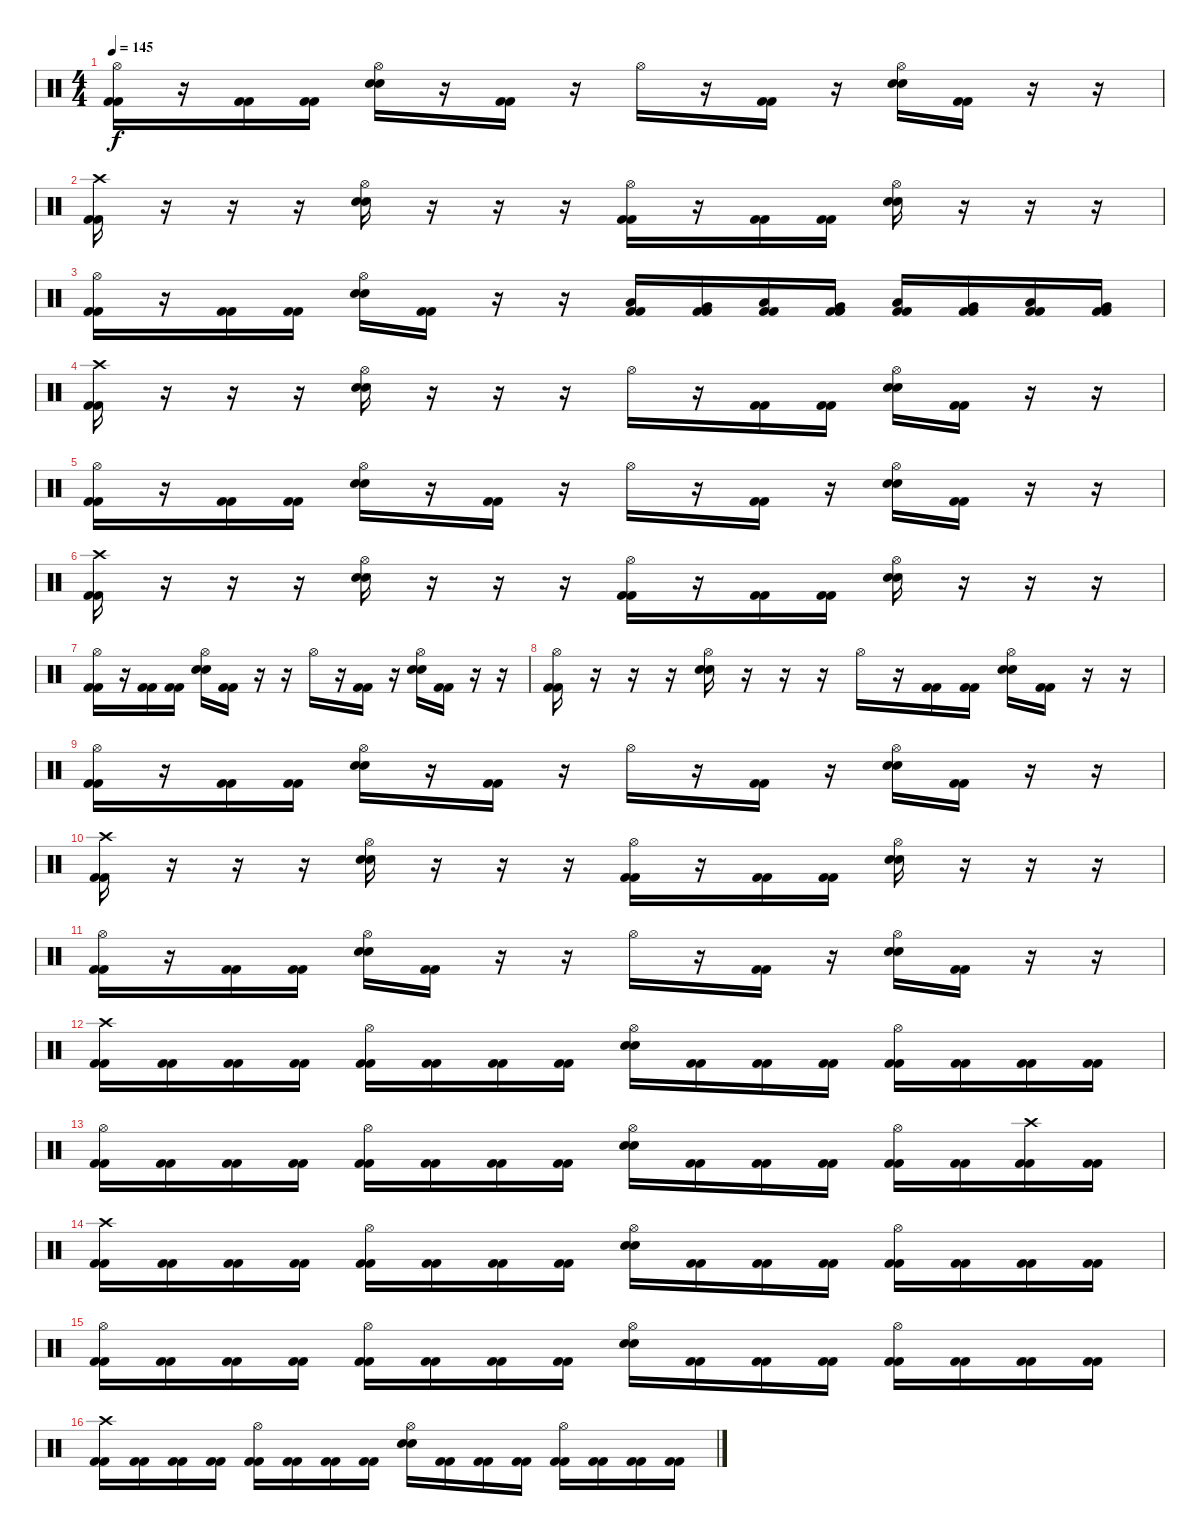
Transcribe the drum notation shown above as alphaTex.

\track "" {instrument percussion}
\staff {score}
\articulation defaults
\ts (4 4)
\tempo 145
\clef neutral
\ks c
("Hi-Hat (open)" "Kick (hit) 2" "Kick (hit) 2").16{dy f} r.16 ("Kick (hit) 2" "Kick (hit) 2").16 ("Kick (hit) 2" "Kick (hit) 2").16 ("Hi-Hat (open)" "Snare (hit) 2" "Snare (hit) 2").16 r.16 ("Kick (hit) 2" "Kick (hit) 2").16 r.16 "Hi-Hat (open)".16 r.16 ("Kick (hit) 2" "Kick (hit) 2").16 r.16 ("Hi-Hat (open)" "Snare (hit) 2" "Snare (hit) 2").16 ("Kick (hit) 2" "Kick (hit) 2").16 r.16 r.16 |
("Crash high (hit)" "Kick (hit) 2" "Kick (hit) 2").16 r.16 r.16 r.16 ("Hi-Hat (open)" "Snare (hit) 2" "Snare (hit) 2").16 r.16 r.16 r.16 ("Hi-Hat (open)" "Kick (hit) 2" "Kick (hit) 2").16 r.16 ("Kick (hit) 2" "Kick (hit) 2").16 ("Kick (hit) 2" "Kick (hit) 2").16 ("Hi-Hat (open)" "Snare (hit) 2" "Snare (hit) 2").16 r.16 r.16 r.16 |
("Hi-Hat (open)" "Kick (hit) 2" "Kick (hit) 2").16 r.16 ("Kick (hit) 2" "Kick (hit) 2").16 ("Kick (hit) 2" "Kick (hit) 2").16 ("Hi-Hat (open)" "Snare (hit) 2" "Snare (hit) 2").16 ("Kick (hit) 2" "Kick (hit) 2").16 r.16 r.16 ("Low Tom (hit)" "Kick (hit) 2" "Kick (hit) 2").16 ("Very Low Tom (hit)" "Kick (hit) 2" "Kick (hit) 2").16 ("Low Tom (hit)" "Kick (hit) 2" "Kick (hit) 2").16 ("Very Low Tom (hit)" "Kick (hit) 2" "Kick (hit) 2").16 ("Low Tom (hit)" "Kick (hit) 2" "Kick (hit) 2").16 ("Very Low Tom (hit)" "Kick (hit) 2" "Kick (hit) 2").16 ("Low Tom (hit)" "Kick (hit) 2" "Kick (hit) 2").16 ("Very Low Tom (hit)" "Kick (hit) 2" "Kick (hit) 2").16 |
("Crash high (hit)" "Kick (hit) 2" "Kick (hit) 2").16 r.16 r.16 r.16 ("Hi-Hat (open)" "Snare (hit) 2" "Snare (hit) 2").16 r.16 r.16 r.16 "Hi-Hat (open)".16 r.16 ("Kick (hit) 2" "Kick (hit) 2").16 ("Kick (hit) 2" "Kick (hit) 2").16 ("Hi-Hat (open)" "Snare (hit) 2" "Snare (hit) 2").16 ("Kick (hit) 2" "Kick (hit) 2").16 r.16 r.16 |
("Hi-Hat (open)" "Kick (hit) 2" "Kick (hit) 2").16 r.16 ("Kick (hit) 2" "Kick (hit) 2").16 ("Kick (hit) 2" "Kick (hit) 2").16 ("Hi-Hat (open)" "Snare (hit) 2" "Snare (hit) 2").16 r.16 ("Kick (hit) 2" "Kick (hit) 2").16 r.16 "Hi-Hat (open)".16 r.16 ("Kick (hit) 2" "Kick (hit) 2").16 r.16 ("Hi-Hat (open)" "Snare (hit) 2" "Snare (hit) 2").16 ("Kick (hit) 2" "Kick (hit) 2").16 r.16 r.16 |
("Crash high (hit)" "Kick (hit) 2" "Kick (hit) 2").16 r.16 r.16 r.16 ("Hi-Hat (open)" "Snare (hit) 2" "Snare (hit) 2").16 r.16 r.16 r.16 ("Hi-Hat (open)" "Kick (hit) 2" "Kick (hit) 2").16 r.16 ("Kick (hit) 2" "Kick (hit) 2").16 ("Kick (hit) 2" "Kick (hit) 2").16 ("Hi-Hat (open)" "Snare (hit) 2" "Snare (hit) 2").16 r.16 r.16 r.16 |
("Hi-Hat (open)" "Kick (hit) 2" "Kick (hit) 2").16 r.16 ("Kick (hit) 2" "Kick (hit) 2").16 ("Kick (hit) 2" "Kick (hit) 2").16 ("Hi-Hat (open)" "Snare (hit) 2" "Snare (hit) 2").16 ("Kick (hit) 2" "Kick (hit) 2").16 r.16 r.16 "Hi-Hat (open)".16 r.16 ("Kick (hit) 2" "Kick (hit) 2").16 r.16 ("Hi-Hat (open)" "Snare (hit) 2" "Snare (hit) 2").16 ("Kick (hit) 2" "Kick (hit) 2").16 r.16 r.16 |
("Hi-Hat (open)" "Kick (hit) 2" "Kick (hit) 2").16 r.16 r.16 r.16 ("Hi-Hat (open)" "Snare (hit) 2" "Snare (hit) 2").16 r.16 r.16 r.16 "Hi-Hat (open)".16 r.16 ("Kick (hit) 2" "Kick (hit) 2").16 ("Kick (hit) 2" "Kick (hit) 2").16 ("Hi-Hat (open)" "Snare (hit) 2" "Snare (hit) 2").16 ("Kick (hit) 2" "Kick (hit) 2").16 r.16 r.16 |
("Hi-Hat (open)" "Kick (hit) 2" "Kick (hit) 2").16 r.16 ("Kick (hit) 2" "Kick (hit) 2").16 ("Kick (hit) 2" "Kick (hit) 2").16 ("Hi-Hat (open)" "Snare (hit) 2" "Snare (hit) 2").16 r.16 ("Kick (hit) 2" "Kick (hit) 2").16 r.16 "Hi-Hat (open)".16 r.16 ("Kick (hit) 2" "Kick (hit) 2").16 r.16 ("Hi-Hat (open)" "Snare (hit) 2" "Snare (hit) 2").16 ("Kick (hit) 2" "Kick (hit) 2").16 r.16 r.16 |
("Crash high (hit)" "Kick (hit) 2" "Kick (hit) 2").16 r.16 r.16 r.16 ("Hi-Hat (open)" "Snare (hit) 2" "Snare (hit) 2").16 r.16 r.16 r.16 ("Hi-Hat (open)" "Kick (hit) 2" "Kick (hit) 2").16 r.16 ("Kick (hit) 2" "Kick (hit) 2").16 ("Kick (hit) 2" "Kick (hit) 2").16 ("Hi-Hat (open)" "Snare (hit) 2" "Snare (hit) 2").16 r.16 r.16 r.16 |
("Hi-Hat (open)" "Kick (hit) 2" "Kick (hit) 2").16 r.16 ("Kick (hit) 2" "Kick (hit) 2").16 ("Kick (hit) 2" "Kick (hit) 2").16 ("Hi-Hat (open)" "Snare (hit) 2" "Snare (hit) 2").16 ("Kick (hit) 2" "Kick (hit) 2").16 r.16 r.16 "Hi-Hat (open)".16 r.16 ("Kick (hit) 2" "Kick (hit) 2").16 r.16 ("Hi-Hat (open)" "Snare (hit) 2" "Snare (hit) 2").16 ("Kick (hit) 2" "Kick (hit) 2").16 r.16 r.16 |
("Crash high (hit)" "Kick (hit) 2" "Kick (hit) 2").16 ("Kick (hit) 2" "Kick (hit) 2").16 ("Kick (hit) 2" "Kick (hit) 2").16 ("Kick (hit) 2" "Kick (hit) 2").16 ("Hi-Hat (open)" "Kick (hit) 2" "Kick (hit) 2").16 ("Kick (hit) 2" "Kick (hit) 2").16 ("Kick (hit) 2" "Kick (hit) 2").16 ("Kick (hit) 2" "Kick (hit) 2").16 ("Hi-Hat (open)" "Snare (hit) 2" "Snare (hit) 2").16 ("Kick (hit) 2" "Kick (hit) 2").16 ("Kick (hit) 2" "Kick (hit) 2").16 ("Kick (hit) 2" "Kick (hit) 2").16 ("Hi-Hat (open)" "Kick (hit) 2" "Kick (hit) 2").16 ("Kick (hit) 2" "Kick (hit) 2").16 ("Kick (hit) 2" "Kick (hit) 2").16 ("Kick (hit) 2" "Kick (hit) 2").16 |
("Hi-Hat (open)" "Kick (hit) 2" "Kick (hit) 2").16 ("Kick (hit) 2" "Kick (hit) 2").16 ("Kick (hit) 2" "Kick (hit) 2").16 ("Kick (hit) 2" "Kick (hit) 2").16 ("Hi-Hat (open)" "Kick (hit) 2" "Kick (hit) 2").16 ("Kick (hit) 2" "Kick (hit) 2").16 ("Kick (hit) 2" "Kick (hit) 2").16 ("Kick (hit) 2" "Kick (hit) 2").16 ("Hi-Hat (open)" "Snare (hit) 2" "Snare (hit) 2").16 ("Kick (hit) 2" "Kick (hit) 2").16 ("Kick (hit) 2" "Kick (hit) 2").16 ("Kick (hit) 2" "Kick (hit) 2").16 ("Hi-Hat (open)" "Kick (hit) 2" "Kick (hit) 2").16 ("Kick (hit) 2" "Kick (hit) 2").16 ("Crash high (hit)" "Kick (hit) 2" "Kick (hit) 2").16 ("Kick (hit) 2" "Kick (hit) 2").16 |
("Crash high (hit)" "Kick (hit) 2" "Kick (hit) 2").16 ("Kick (hit) 2" "Kick (hit) 2").16 ("Kick (hit) 2" "Kick (hit) 2").16 ("Kick (hit) 2" "Kick (hit) 2").16 ("Hi-Hat (open)" "Kick (hit) 2" "Kick (hit) 2").16 ("Kick (hit) 2" "Kick (hit) 2").16 ("Kick (hit) 2" "Kick (hit) 2").16 ("Kick (hit) 2" "Kick (hit) 2").16 ("Hi-Hat (open)" "Snare (hit) 2" "Snare (hit) 2").16 ("Kick (hit) 2" "Kick (hit) 2").16 ("Kick (hit) 2" "Kick (hit) 2").16 ("Kick (hit) 2" "Kick (hit) 2").16 ("Hi-Hat (open)" "Kick (hit) 2" "Kick (hit) 2").16 ("Kick (hit) 2" "Kick (hit) 2").16 ("Kick (hit) 2" "Kick (hit) 2").16 ("Kick (hit) 2" "Kick (hit) 2").16 |
("Hi-Hat (open)" "Kick (hit) 2" "Kick (hit) 2").16 ("Kick (hit) 2" "Kick (hit) 2").16 ("Kick (hit) 2" "Kick (hit) 2").16 ("Kick (hit) 2" "Kick (hit) 2").16 ("Hi-Hat (open)" "Kick (hit) 2" "Kick (hit) 2").16 ("Kick (hit) 2" "Kick (hit) 2").16 ("Kick (hit) 2" "Kick (hit) 2").16 ("Kick (hit) 2" "Kick (hit) 2").16 ("Hi-Hat (open)" "Snare (hit) 2" "Snare (hit) 2").16 ("Kick (hit) 2" "Kick (hit) 2").16 ("Kick (hit) 2" "Kick (hit) 2").16 ("Kick (hit) 2" "Kick (hit) 2").16 ("Hi-Hat (open)" "Kick (hit) 2" "Kick (hit) 2").16 ("Kick (hit) 2" "Kick (hit) 2").16 ("Kick (hit) 2" "Kick (hit) 2").16 ("Kick (hit) 2" "Kick (hit) 2").16 |
("Crash high (hit)" "Kick (hit) 2" "Kick (hit) 2").16 ("Kick (hit) 2" "Kick (hit) 2").16 ("Kick (hit) 2" "Kick (hit) 2").16 ("Kick (hit) 2" "Kick (hit) 2").16 ("Hi-Hat (open)" "Kick (hit) 2" "Kick (hit) 2").16 ("Kick (hit) 2" "Kick (hit) 2").16 ("Kick (hit) 2" "Kick (hit) 2").16 ("Kick (hit) 2" "Kick (hit) 2").16 ("Hi-Hat (open)" "Snare (hit) 2" "Snare (hit) 2").16 ("Kick (hit) 2" "Kick (hit) 2").16 ("Kick (hit) 2" "Kick (hit) 2").16 ("Kick (hit) 2" "Kick (hit) 2").16 ("Hi-Hat (open)" "Kick (hit) 2" "Kick (hit) 2").16 ("Kick (hit) 2" "Kick (hit) 2").16 ("Kick (hit) 2" "Kick (hit) 2").16 ("Kick (hit) 2" "Kick (hit) 2").16
